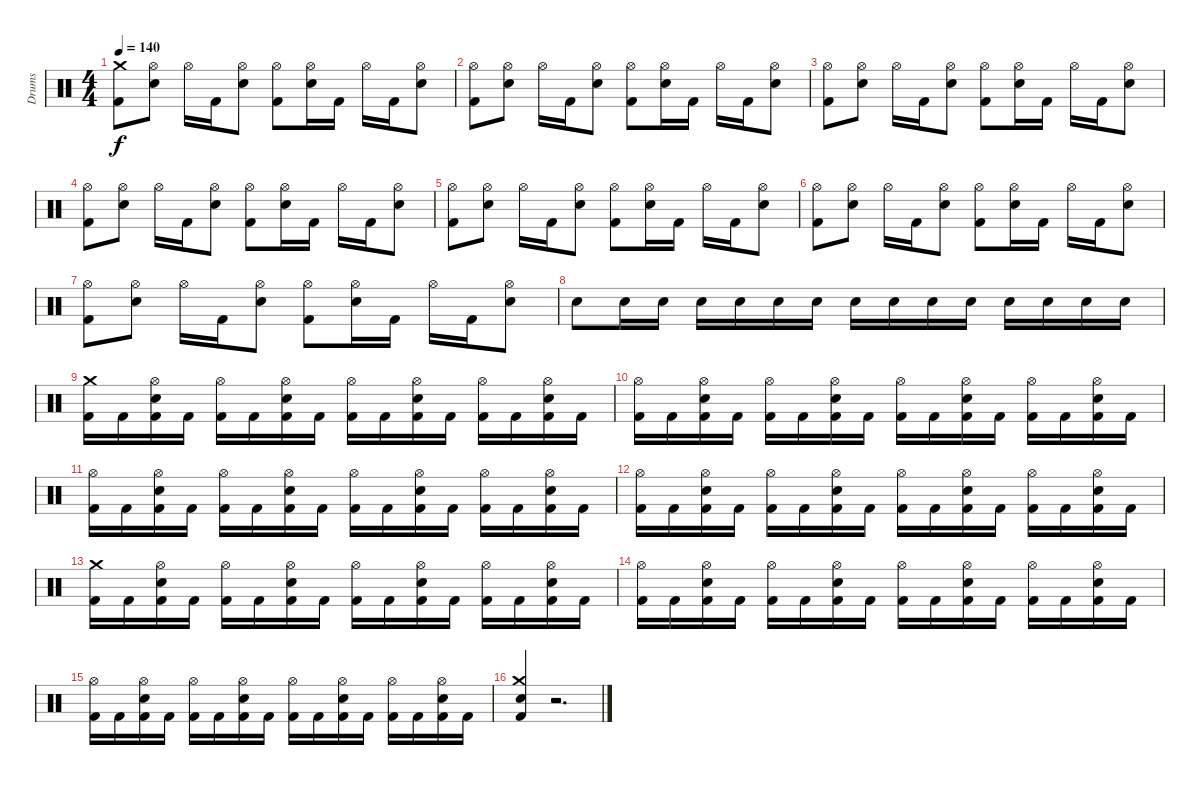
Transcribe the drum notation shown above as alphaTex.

\track ("Drums" "Drums") {instrument percussion}
\staff {score}
\articulation defaults
\ts (4 4)
\tempo 140
\clef neutral
\ks c
("Kick (hit) 2" "Crash medium (hit)").8{dy f} ("Snare (hit) 2" "Hi-Hat (open)").8 "Hi-Hat (open)".16 "Kick (hit) 2".16 ("Snare (hit) 2" "Hi-Hat (open)").8 ("Hi-Hat (open)" "Kick (hit) 2").8 ("Snare (hit) 2" "Hi-Hat (open)").16 "Kick (hit) 2".16 "Hi-Hat (open)".16 "Kick (hit) 2".16 ("Snare (hit) 2" "Hi-Hat (open)").8 |
("Kick (hit) 2" "Hi-Hat (open)").8 ("Hi-Hat (open)" "Snare (hit) 2").8 "Hi-Hat (open)".16 "Kick (hit) 2".16 ("Snare (hit) 2" "Hi-Hat (open)").8 ("Kick (hit) 2" "Hi-Hat (open)").8 ("Hi-Hat (open)" "Snare (hit) 2").16 "Kick (hit) 2".16 "Hi-Hat (open)".16 "Kick (hit) 2".16 ("Snare (hit) 2" "Hi-Hat (open)").8 |
("Kick (hit) 2" "Hi-Hat (open)").8 ("Hi-Hat (open)" "Snare (hit) 2").8 "Hi-Hat (open)".16 "Kick (hit) 2".16 ("Snare (hit) 2" "Hi-Hat (open)").8 ("Kick (hit) 2" "Hi-Hat (open)").8 ("Hi-Hat (open)" "Snare (hit) 2").16 "Kick (hit) 2".16 "Hi-Hat (open)".16 "Kick (hit) 2".16 ("Snare (hit) 2" "Hi-Hat (open)").8 |
("Kick (hit) 2" "Hi-Hat (open)").8 ("Hi-Hat (open)" "Snare (hit) 2").8 "Hi-Hat (open)".16 "Kick (hit) 2".16 ("Snare (hit) 2" "Hi-Hat (open)").8 ("Kick (hit) 2" "Hi-Hat (open)").8 ("Hi-Hat (open)" "Snare (hit) 2").16 "Kick (hit) 2".16 "Hi-Hat (open)".16 "Kick (hit) 2".16 ("Snare (hit) 2" "Hi-Hat (open)").8 |
("Kick (hit) 2" "Hi-Hat (open)").8 ("Hi-Hat (open)" "Snare (hit) 2").8 "Hi-Hat (open)".16 "Kick (hit) 2".16 ("Snare (hit) 2" "Hi-Hat (open)").8 ("Kick (hit) 2" "Hi-Hat (open)").8 ("Hi-Hat (open)" "Snare (hit) 2").16 "Kick (hit) 2".16 "Hi-Hat (open)".16 "Kick (hit) 2".16 ("Snare (hit) 2" "Hi-Hat (open)").8 |
("Kick (hit) 2" "Hi-Hat (open)").8 ("Hi-Hat (open)" "Snare (hit) 2").8 "Hi-Hat (open)".16 "Kick (hit) 2".16 ("Snare (hit) 2" "Hi-Hat (open)").8 ("Kick (hit) 2" "Hi-Hat (open)").8 ("Hi-Hat (open)" "Snare (hit) 2").16 "Kick (hit) 2".16 "Hi-Hat (open)".16 "Kick (hit) 2".16 ("Snare (hit) 2" "Hi-Hat (open)").8 |
("Kick (hit) 2" "Hi-Hat (open)").8 ("Hi-Hat (open)" "Snare (hit) 2").8 "Hi-Hat (open)".16 "Kick (hit) 2".16 ("Snare (hit) 2" "Hi-Hat (open)").8 ("Kick (hit) 2" "Hi-Hat (open)").8 ("Hi-Hat (open)" "Snare (hit) 2").16 "Kick (hit) 2".16 "Hi-Hat (open)".16 "Kick (hit) 2".16 ("Snare (hit) 2" "Hi-Hat (open)").8 |
"Snare (hit) 2".8 "Snare (hit) 2".16 "Snare (hit) 2".16 "Snare (hit) 2".16 "Snare (hit) 2".16 "Snare (hit) 2".16 "Snare (hit) 2".16 "Snare (hit) 2".16 "Snare (hit) 2".16 "Snare (hit) 2".16 "Snare (hit) 2".16 "Snare (hit) 2".16 "Snare (hit) 2".16 "Snare (hit) 2".16 "Snare (hit) 2".16 |
("Crash medium (hit)" "Kick (hit) 2").16 "Kick (hit) 2".16 ("Kick (hit) 2" "Hi-Hat (open)" "Snare (hit) 2").16 "Kick (hit) 2".16 ("Kick (hit) 2" "Hi-Hat (open)").16 "Kick (hit) 2".16 ("Hi-Hat (open)" "Kick (hit) 2" "Snare (hit) 2").16 "Kick (hit) 2".16 ("Kick (hit) 2" "Hi-Hat (open)").16 "Kick (hit) 2".16 ("Hi-Hat (open)" "Kick (hit) 2" "Snare (hit) 2").16 "Kick (hit) 2".16 ("Kick (hit) 2" "Hi-Hat (open)").16 "Kick (hit) 2".16 ("Hi-Hat (open)" "Snare (hit) 2" "Kick (hit) 2").16 "Kick (hit) 2".16 |
("Kick (hit) 2" "Hi-Hat (open)").16 "Kick (hit) 2".16 ("Hi-Hat (open)" "Kick (hit) 2" "Snare (hit) 2").16 "Kick (hit) 2".16 ("Kick (hit) 2" "Hi-Hat (open)").16 "Kick (hit) 2".16 ("Hi-Hat (open)" "Kick (hit) 2" "Snare (hit) 2").16 "Kick (hit) 2".16 ("Kick (hit) 2" "Hi-Hat (open)").16 "Kick (hit) 2".16 ("Hi-Hat (open)" "Kick (hit) 2" "Snare (hit) 2").16 "Kick (hit) 2".16 ("Hi-Hat (open)" "Kick (hit) 2").16 "Kick (hit) 2".16 ("Snare (hit) 2" "Kick (hit) 2" "Hi-Hat (open)").16 "Kick (hit) 2".16 |
("Hi-Hat (open)" "Kick (hit) 2").16 "Kick (hit) 2".16 ("Hi-Hat (open)" "Kick (hit) 2" "Snare (hit) 2").16 "Kick (hit) 2".16 ("Kick (hit) 2" "Hi-Hat (open)").16 "Kick (hit) 2".16 ("Hi-Hat (open)" "Snare (hit) 2" "Kick (hit) 2").16 "Kick (hit) 2".16 ("Hi-Hat (open)" "Kick (hit) 2").16 "Kick (hit) 2".16 ("Snare (hit) 2" "Kick (hit) 2" "Hi-Hat (open)").16 "Kick (hit) 2".16 ("Hi-Hat (open)" "Kick (hit) 2").16 "Kick (hit) 2".16 ("Hi-Hat (open)" "Kick (hit) 2" "Snare (hit) 2").16 "Kick (hit) 2".16 |
("Kick (hit) 2" "Hi-Hat (open)").16 "Kick (hit) 2".16 ("Hi-Hat (open)" "Kick (hit) 2" "Snare (hit) 2").16 "Kick (hit) 2".16 ("Kick (hit) 2" "Hi-Hat (open)").16 "Kick (hit) 2".16 ("Snare (hit) 2" "Kick (hit) 2" "Hi-Hat (open)").16 "Kick (hit) 2".16 ("Kick (hit) 2" "Hi-Hat (open)").16 "Kick (hit) 2".16 ("Snare (hit) 2" "Hi-Hat (open)" "Kick (hit) 2").16 "Kick (hit) 2".16 ("Kick (hit) 2" "Hi-Hat (open)").16 "Kick (hit) 2".16 ("Snare (hit) 2" "Hi-Hat (open)" "Kick (hit) 2").16 "Kick (hit) 2".16 |
("Crash medium (hit)" "Kick (hit) 2").16 "Kick (hit) 2".16 ("Snare (hit) 2" "Kick (hit) 2" "Hi-Hat (open)").16 "Kick (hit) 2".16 ("Kick (hit) 2" "Hi-Hat (open)").16 "Kick (hit) 2".16 ("Snare (hit) 2" "Hi-Hat (open)" "Kick (hit) 2").16 "Kick (hit) 2".16 ("Kick (hit) 2" "Hi-Hat (open)").16 "Kick (hit) 2".16 ("Snare (hit) 2" "Hi-Hat (open)" "Kick (hit) 2").16 "Kick (hit) 2".16 ("Kick (hit) 2" "Hi-Hat (open)").16 "Kick (hit) 2".16 ("Kick (hit) 2" "Snare (hit) 2" "Hi-Hat (open)").16 "Kick (hit) 2".16 |
("Kick (hit) 2" "Hi-Hat (open)").16 "Kick (hit) 2".16 ("Hi-Hat (open)" "Kick (hit) 2" "Snare (hit) 2").16 "Kick (hit) 2".16 ("Kick (hit) 2" "Hi-Hat (open)").16 "Kick (hit) 2".16 ("Snare (hit) 2" "Hi-Hat (open)" "Kick (hit) 2").16 "Kick (hit) 2".16 ("Hi-Hat (open)" "Kick (hit) 2").16 "Kick (hit) 2".16 ("Hi-Hat (open)" "Snare (hit) 2" "Kick (hit) 2").16 "Kick (hit) 2".16 ("Kick (hit) 2" "Hi-Hat (open)").16 "Kick (hit) 2".16 ("Hi-Hat (open)" "Kick (hit) 2" "Snare (hit) 2").16 "Kick (hit) 2".16 |
("Kick (hit) 2" "Hi-Hat (open)").16 "Kick (hit) 2".16 ("Snare (hit) 2" "Hi-Hat (open)" "Kick (hit) 2").16 "Kick (hit) 2".16 ("Kick (hit) 2" "Hi-Hat (open)").16 "Kick (hit) 2".16 ("Kick (hit) 2" "Hi-Hat (open)" "Snare (hit) 2").16 "Kick (hit) 2".16 ("Kick (hit) 2" "Hi-Hat (open)").16 "Kick (hit) 2".16 ("Snare (hit) 2" "Hi-Hat (open)" "Kick (hit) 2").16 "Kick (hit) 2".16 ("Hi-Hat (open)" "Kick (hit) 2").16 "Kick (hit) 2".16 ("Snare (hit) 2" "Kick (hit) 2" "Hi-Hat (open)").16 "Kick (hit) 2".16 |
("Crash medium (hit)" "Snare (hit) 2" "Kick (hit) 2").4 r.2{d}
